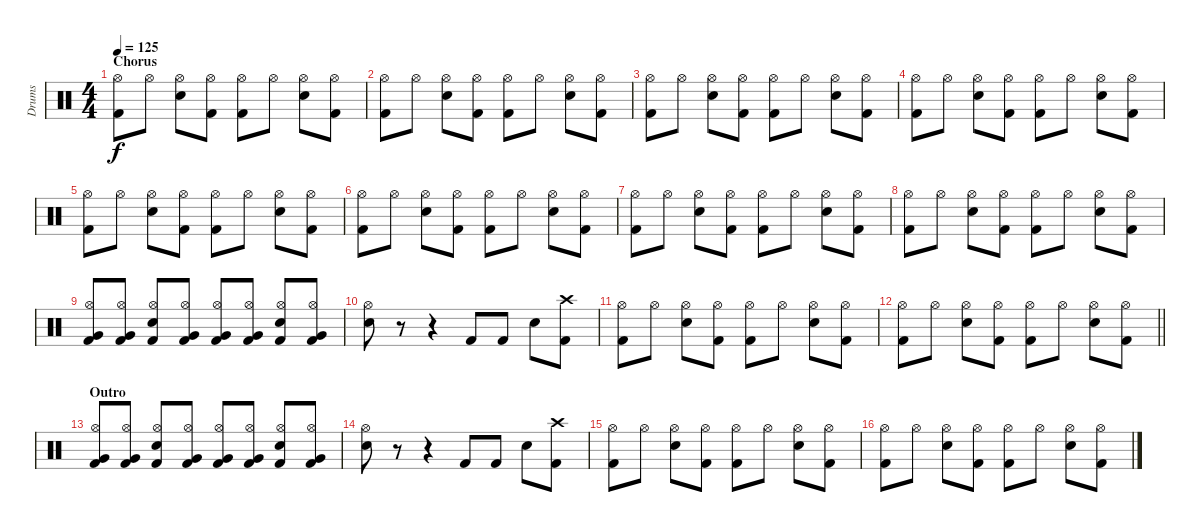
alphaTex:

\track ("Drums" "Drums") {instrument percussion}
\staff {score}
\articulation defaults
\ts (4 4)
\section ("" "Chorus")
\tempo 125
\clef neutral
\ks c
("Kick (hit) 2" "Hi-Hat (open)").8{dy f} "Hi-Hat (open)".8 ("Electric Snare (hit)" "Hi-Hat (open)").8 ("Kick (hit) 2" "Hi-Hat (open)").8 ("Kick (hit) 2" "Hi-Hat (open)").8 "Hi-Hat (open)".8 ("Electric Snare (hit)" "Hi-Hat (open)").8 ("Kick (hit) 2" "Hi-Hat (open)").8 |
("Kick (hit) 2" "Hi-Hat (open)").8 "Hi-Hat (open)".8 ("Electric Snare (hit)" "Hi-Hat (open)").8 ("Kick (hit) 2" "Hi-Hat (open)").8 ("Kick (hit) 2" "Hi-Hat (open)").8 "Hi-Hat (open)".8 ("Electric Snare (hit)" "Hi-Hat (open)").8 ("Kick (hit) 2" "Hi-Hat (open)").8 |
("Kick (hit) 2" "Hi-Hat (open)").8 "Hi-Hat (open)".8 ("Electric Snare (hit)" "Hi-Hat (open)").8 ("Kick (hit) 2" "Hi-Hat (open)").8 ("Kick (hit) 2" "Hi-Hat (open)").8 "Hi-Hat (open)".8 ("Electric Snare (hit)" "Hi-Hat (open)").8 ("Kick (hit) 2" "Hi-Hat (open)").8 |
("Kick (hit) 2" "Hi-Hat (open)").8 "Hi-Hat (open)".8 ("Electric Snare (hit)" "Hi-Hat (open)").8 ("Kick (hit) 2" "Hi-Hat (open)").8 ("Kick (hit) 2" "Hi-Hat (open)").8 "Hi-Hat (open)".8 ("Electric Snare (hit)" "Hi-Hat (open)").8 ("Kick (hit) 2" "Hi-Hat (open)").8 |
("Kick (hit) 2" "Hi-Hat (open)").8 "Hi-Hat (open)".8 ("Electric Snare (hit)" "Hi-Hat (open)").8 ("Kick (hit) 2" "Hi-Hat (open)").8 ("Kick (hit) 2" "Hi-Hat (open)").8 "Hi-Hat (open)".8 ("Electric Snare (hit)" "Hi-Hat (open)").8 ("Kick (hit) 2" "Hi-Hat (open)").8 |
("Kick (hit) 2" "Hi-Hat (open)").8 "Hi-Hat (open)".8 ("Electric Snare (hit)" "Hi-Hat (open)").8 ("Kick (hit) 2" "Hi-Hat (open)").8 ("Kick (hit) 2" "Hi-Hat (open)").8 "Hi-Hat (open)".8 ("Electric Snare (hit)" "Hi-Hat (open)").8 ("Kick (hit) 2" "Hi-Hat (open)").8 |
("Kick (hit) 2" "Hi-Hat (open)").8 "Hi-Hat (open)".8 ("Electric Snare (hit)" "Hi-Hat (open)").8 ("Kick (hit) 2" "Hi-Hat (open)").8 ("Kick (hit) 2" "Hi-Hat (open)").8 "Hi-Hat (open)".8 ("Electric Snare (hit)" "Hi-Hat (open)").8 ("Kick (hit) 2" "Hi-Hat (open)").8 |
("Kick (hit) 2" "Hi-Hat (open)").8 "Hi-Hat (open)".8 ("Electric Snare (hit)" "Hi-Hat (open)").8 ("Kick (hit) 2" "Hi-Hat (open)").8 ("Kick (hit) 2" "Hi-Hat (open)").8 "Hi-Hat (open)".8 ("Electric Snare (hit)" "Hi-Hat (open)").8 ("Kick (hit) 2" "Hi-Hat (open)").8 |
("Very Low Tom (hit)" "Kick (hit) 2" "Hi-Hat (open)").8 ("Very Low Tom (hit)" "Kick (hit) 2" "Hi-Hat (open)").8 ("Electric Snare (hit)" "Kick (hit) 2" "Hi-Hat (open)").8 ("Very Low Tom (hit)" "Kick (hit) 2" "Hi-Hat (open)").8 ("Very Low Tom (hit)" "Kick (hit) 2" "Hi-Hat (open)").8 ("Very Low Tom (hit)" "Kick (hit) 2" "Hi-Hat (open)").8 ("Electric Snare (hit)" "Kick (hit) 2" "Hi-Hat (open)").8 ("Very Low Tom (hit)" "Kick (hit) 2" "Hi-Hat (open)").8 |
("Electric Snare (hit)" "Hi-Hat (open)").8 r.8 r.4 "Kick (hit) 2".8 "Kick (hit) 2".8 "Electric Snare (hit)".8 ("Kick (hit) 2" "Crash high (hit)").8 |
("Kick (hit) 2" "Hi-Hat (open)").8 "Hi-Hat (open)".8 ("Electric Snare (hit)" "Hi-Hat (open)").8 ("Kick (hit) 2" "Hi-Hat (open)").8 ("Kick (hit) 2" "Hi-Hat (open)").8 "Hi-Hat (open)".8 ("Electric Snare (hit)" "Hi-Hat (open)").8 ("Kick (hit) 2" "Hi-Hat (open)").8 |
\barLineRight lightlight
("Kick (hit) 2" "Hi-Hat (open)").8 "Hi-Hat (open)".8 ("Electric Snare (hit)" "Hi-Hat (open)").8 ("Kick (hit) 2" "Hi-Hat (open)").8 ("Kick (hit) 2" "Hi-Hat (open)").8 "Hi-Hat (open)".8 ("Electric Snare (hit)" "Hi-Hat (open)").8 ("Kick (hit) 2" "Hi-Hat (open)").8 |
\section ("" "Outro")
("Very Low Tom (hit)" "Kick (hit) 2" "Hi-Hat (open)").8 ("Very Low Tom (hit)" "Kick (hit) 2" "Hi-Hat (open)").8 ("Electric Snare (hit)" "Kick (hit) 2" "Hi-Hat (open)").8 ("Very Low Tom (hit)" "Kick (hit) 2" "Hi-Hat (open)").8 ("Very Low Tom (hit)" "Kick (hit) 2" "Hi-Hat (open)").8 ("Very Low Tom (hit)" "Kick (hit) 2" "Hi-Hat (open)").8 ("Electric Snare (hit)" "Kick (hit) 2" "Hi-Hat (open)").8 ("Very Low Tom (hit)" "Kick (hit) 2" "Hi-Hat (open)").8 |
("Electric Snare (hit)" "Hi-Hat (open)").8 r.8 r.4 "Kick (hit) 2".8 "Kick (hit) 2".8 "Electric Snare (hit)".8 ("Kick (hit) 2" "Crash high (hit)").8 |
("Kick (hit) 2" "Hi-Hat (open)").8 "Hi-Hat (open)".8 ("Electric Snare (hit)" "Hi-Hat (open)").8 ("Kick (hit) 2" "Hi-Hat (open)").8 ("Kick (hit) 2" "Hi-Hat (open)").8 "Hi-Hat (open)".8 ("Electric Snare (hit)" "Hi-Hat (open)").8 ("Kick (hit) 2" "Hi-Hat (open)").8 |
("Kick (hit) 2" "Hi-Hat (open)").8 "Hi-Hat (open)".8 ("Electric Snare (hit)" "Hi-Hat (open)").8 ("Kick (hit) 2" "Hi-Hat (open)").8 ("Kick (hit) 2" "Hi-Hat (open)").8 "Hi-Hat (open)".8 ("Electric Snare (hit)" "Hi-Hat (open)").8 ("Kick (hit) 2" "Hi-Hat (open)").8
